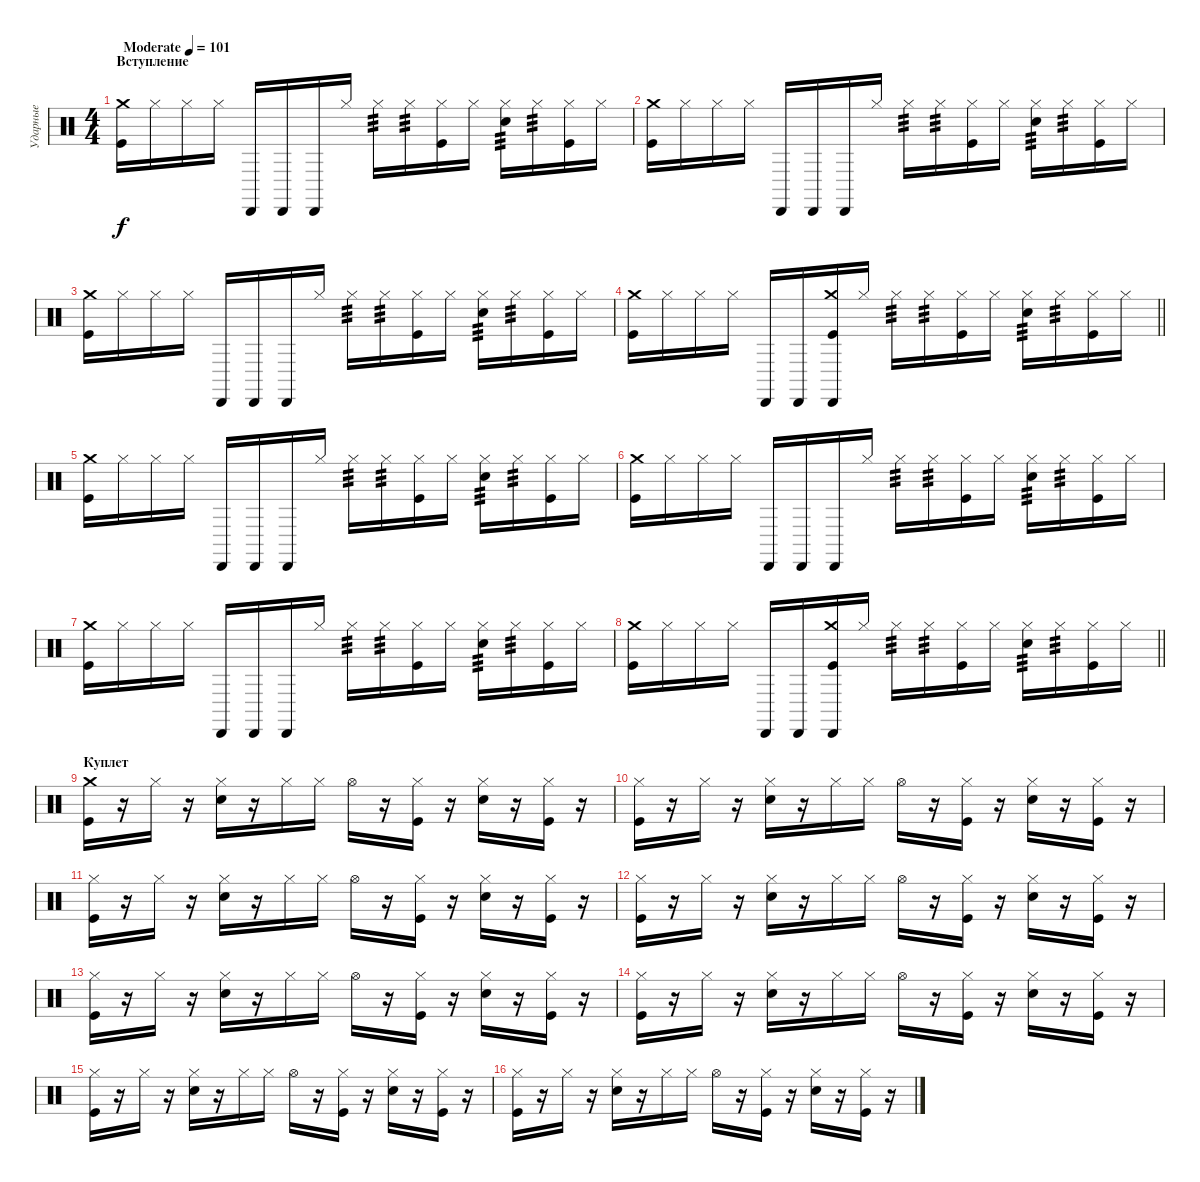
\track ("Ударные" "Ударные") {instrument percussion}
\staff {score}
\articulation defaults
\ts (4 4)
\section ("" "Вступление")
\tempo (101 "Moderate")
\clef neutral
\ks c
("Crash medium (hit)" "Kick (hit)").16{dy f} "Hi-Hat (closed)".16 "Hi-Hat (closed)".16 "Hi-Hat (closed)".16 "Cabasa (hit)".16 "Cabasa (hit)".16 "Cabasa (hit)".16 "Hi-Hat (closed)".16 "Hi-Hat (closed)".16{tp 3} "Hi-Hat (closed)".16{tp 3} ("Hi-Hat (closed)" "Kick (hit)").16 "Hi-Hat (closed)".16 ("Hi-Hat (closed)" "Electric Snare (hit)").16{tp 3} "Hi-Hat (closed)".16{tp 3} ("Hi-Hat (closed)" "Kick (hit)").16 "Hi-Hat (closed)".16 |
("Crash medium (hit)" "Kick (hit)").16 "Hi-Hat (closed)".16 "Hi-Hat (closed)".16 "Hi-Hat (closed)".16 "Cabasa (hit)".16 "Cabasa (hit)".16 "Cabasa (hit)".16 "Hi-Hat (closed)".16 "Hi-Hat (closed)".16{tp 3} "Hi-Hat (closed)".16{tp 3} ("Hi-Hat (closed)" "Kick (hit)").16 "Hi-Hat (closed)".16 ("Hi-Hat (closed)" "Electric Snare (hit)").16{tp 3} "Hi-Hat (closed)".16{tp 3} ("Hi-Hat (closed)" "Kick (hit)").16 "Hi-Hat (closed)".16 |
("Crash medium (hit)" "Kick (hit)").16 "Hi-Hat (closed)".16 "Hi-Hat (closed)".16 "Hi-Hat (closed)".16 "Cabasa (hit)".16 "Cabasa (hit)".16 "Cabasa (hit)".16 "Hi-Hat (closed)".16 "Hi-Hat (closed)".16{tp 3} "Hi-Hat (closed)".16{tp 3} ("Hi-Hat (closed)" "Kick (hit)").16 "Hi-Hat (closed)".16 ("Hi-Hat (closed)" "Electric Snare (hit)").16{tp 3} "Hi-Hat (closed)".16{tp 3} ("Hi-Hat (closed)" "Kick (hit)").16 "Hi-Hat (closed)".16 |
\barLineRight lightlight
("Crash medium (hit)" "Kick (hit)").16 "Hi-Hat (closed)".16 "Hi-Hat (closed)".16 "Hi-Hat (closed)".16 "Cabasa (hit)".16 "Cabasa (hit)".16 ("Cabasa (hit)" "Crash medium (hit)" "Kick (hit)").16 "Hi-Hat (closed)".16 "Hi-Hat (closed)".16{tp 3} "Hi-Hat (closed)".16{tp 3} ("Hi-Hat (closed)" "Kick (hit)").16 "Hi-Hat (closed)".16 ("Hi-Hat (closed)" "Electric Snare (hit)").16{tp 3} "Hi-Hat (closed)".16{tp 3} ("Hi-Hat (closed)" "Kick (hit)").16 "Hi-Hat (closed)".16 |
("Crash medium (hit)" "Kick (hit)").16 "Hi-Hat (closed)".16 "Hi-Hat (closed)".16 "Hi-Hat (closed)".16 "Cabasa (hit)".16 "Cabasa (hit)".16 "Cabasa (hit)".16 "Hi-Hat (closed)".16 "Hi-Hat (closed)".16{tp 3} "Hi-Hat (closed)".16{tp 3} ("Hi-Hat (closed)" "Kick (hit)").16 "Hi-Hat (closed)".16 ("Hi-Hat (closed)" "Electric Snare (hit)").16{tp 3} "Hi-Hat (closed)".16{tp 3} ("Hi-Hat (closed)" "Kick (hit)").16 "Hi-Hat (closed)".16 |
("Crash medium (hit)" "Kick (hit)").16 "Hi-Hat (closed)".16 "Hi-Hat (closed)".16 "Hi-Hat (closed)".16 "Cabasa (hit)".16 "Cabasa (hit)".16 "Cabasa (hit)".16 "Hi-Hat (closed)".16 "Hi-Hat (closed)".16{tp 3} "Hi-Hat (closed)".16{tp 3} ("Hi-Hat (closed)" "Kick (hit)").16 "Hi-Hat (closed)".16 ("Hi-Hat (closed)" "Electric Snare (hit)").16{tp 3} "Hi-Hat (closed)".16{tp 3} ("Hi-Hat (closed)" "Kick (hit)").16 "Hi-Hat (closed)".16 |
("Crash medium (hit)" "Kick (hit)").16 "Hi-Hat (closed)".16 "Hi-Hat (closed)".16 "Hi-Hat (closed)".16 "Cabasa (hit)".16 "Cabasa (hit)".16 "Cabasa (hit)".16 "Hi-Hat (closed)".16 "Hi-Hat (closed)".16{tp 3} "Hi-Hat (closed)".16{tp 3} ("Hi-Hat (closed)" "Kick (hit)").16 "Hi-Hat (closed)".16 ("Hi-Hat (closed)" "Electric Snare (hit)").16{tp 3} "Hi-Hat (closed)".16{tp 3} ("Hi-Hat (closed)" "Kick (hit)").16 "Hi-Hat (closed)".16 |
\barLineRight lightlight
("Crash medium (hit)" "Kick (hit)").16 "Hi-Hat (closed)".16 "Hi-Hat (closed)".16 "Hi-Hat (closed)".16 "Cabasa (hit)".16 "Cabasa (hit)".16 ("Cabasa (hit)" "Crash medium (hit)" "Kick (hit)").16 "Hi-Hat (closed)".16 "Hi-Hat (closed)".16{tp 3} "Hi-Hat (closed)".16{tp 3} ("Hi-Hat (closed)" "Kick (hit)").16 "Hi-Hat (closed)".16 ("Hi-Hat (closed)" "Electric Snare (hit)").16{tp 3} "Hi-Hat (closed)".16{tp 3} ("Hi-Hat (closed)" "Kick (hit)").16 "Hi-Hat (closed)".16 |
\section ("" "Куплет")
("Crash medium (hit)" "Kick (hit)").16 r.16 "Hi-Hat (closed)".16 r.16 ("Hi-Hat (closed)" "Electric Snare (hit)").16 r.16 "Hi-Hat (closed)".16 "Hi-Hat (closed)".16 "Hi-Hat (open)".16 r.16 ("Hi-Hat (closed)" "Kick (hit)").16 r.16 ("Hi-Hat (closed)" "Electric Snare (hit)").16 r.16 ("Hi-Hat (closed)" "Kick (hit)").16 r.16 |
("Hi-Hat (closed)" "Kick (hit)").16 r.16 "Hi-Hat (closed)".16 r.16 ("Hi-Hat (closed)" "Electric Snare (hit)").16 r.16 "Hi-Hat (closed)".16 "Hi-Hat (closed)".16 "Hi-Hat (open)".16 r.16 ("Hi-Hat (closed)" "Kick (hit)").16 r.16 ("Hi-Hat (closed)" "Electric Snare (hit)").16 r.16 ("Hi-Hat (closed)" "Kick (hit)").16 r.16 |
("Hi-Hat (closed)" "Kick (hit)").16 r.16 "Hi-Hat (closed)".16 r.16 ("Hi-Hat (closed)" "Electric Snare (hit)").16 r.16 "Hi-Hat (closed)".16 "Hi-Hat (closed)".16 "Hi-Hat (open)".16 r.16 ("Hi-Hat (closed)" "Kick (hit)").16 r.16 ("Hi-Hat (closed)" "Electric Snare (hit)").16 r.16 ("Hi-Hat (closed)" "Kick (hit)").16 r.16 |
("Hi-Hat (closed)" "Kick (hit)").16 r.16 "Hi-Hat (closed)".16 r.16 ("Hi-Hat (closed)" "Electric Snare (hit)").16 r.16 "Hi-Hat (closed)".16 "Hi-Hat (closed)".16 "Hi-Hat (open)".16 r.16 ("Hi-Hat (closed)" "Kick (hit)").16 r.16 ("Hi-Hat (closed)" "Electric Snare (hit)").16 r.16 ("Hi-Hat (closed)" "Kick (hit)").16 r.16 |
("Hi-Hat (closed)" "Kick (hit)").16 r.16 "Hi-Hat (closed)".16 r.16 ("Hi-Hat (closed)" "Electric Snare (hit)").16 r.16 "Hi-Hat (closed)".16 "Hi-Hat (closed)".16 "Hi-Hat (open)".16 r.16 ("Hi-Hat (closed)" "Kick (hit)").16 r.16 ("Hi-Hat (closed)" "Electric Snare (hit)").16 r.16 ("Hi-Hat (closed)" "Kick (hit)").16 r.16 |
("Hi-Hat (closed)" "Kick (hit)").16 r.16 "Hi-Hat (closed)".16 r.16 ("Hi-Hat (closed)" "Electric Snare (hit)").16 r.16 "Hi-Hat (closed)".16 "Hi-Hat (closed)".16 "Hi-Hat (open)".16 r.16 ("Hi-Hat (closed)" "Kick (hit)").16 r.16 ("Hi-Hat (closed)" "Electric Snare (hit)").16 r.16 ("Hi-Hat (closed)" "Kick (hit)").16 r.16 |
("Hi-Hat (closed)" "Kick (hit)").16 r.16 "Hi-Hat (closed)".16 r.16 ("Hi-Hat (closed)" "Electric Snare (hit)").16 r.16 "Hi-Hat (closed)".16 "Hi-Hat (closed)".16 "Hi-Hat (open)".16 r.16 ("Hi-Hat (closed)" "Kick (hit)").16 r.16 ("Hi-Hat (closed)" "Electric Snare (hit)").16 r.16 ("Hi-Hat (closed)" "Kick (hit)").16 r.16 |
("Hi-Hat (closed)" "Kick (hit)").16 r.16 "Hi-Hat (closed)".16 r.16 ("Hi-Hat (closed)" "Electric Snare (hit)").16 r.16 "Hi-Hat (closed)".16 "Hi-Hat (closed)".16 "Hi-Hat (open)".16 r.16 ("Hi-Hat (closed)" "Kick (hit)").16 r.16 ("Hi-Hat (closed)" "Electric Snare (hit)").16 r.16 ("Hi-Hat (closed)" "Kick (hit)").16 r.16
